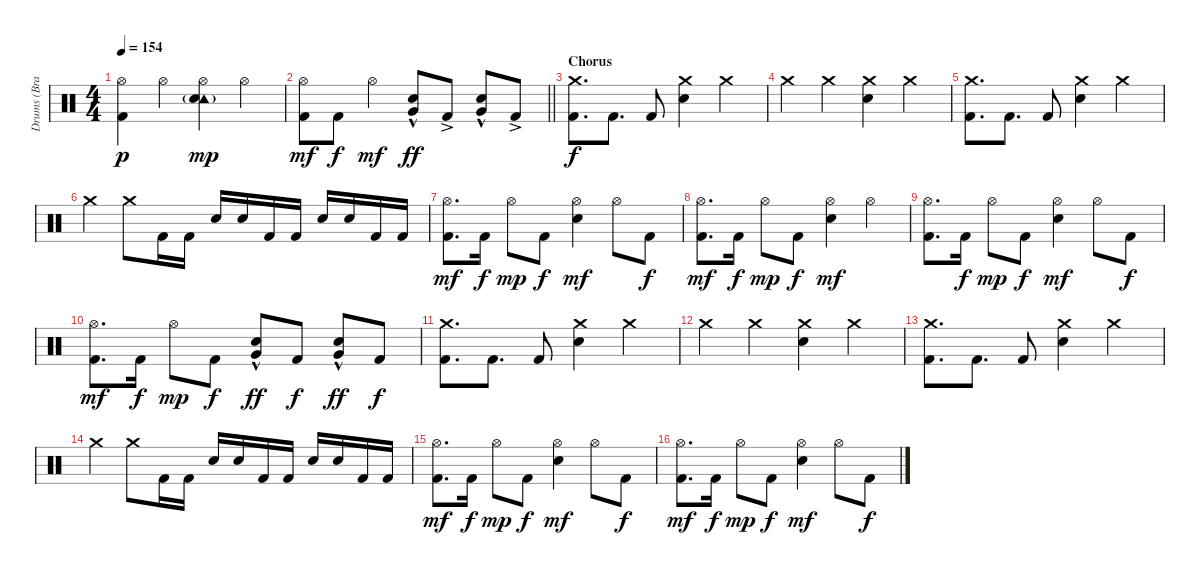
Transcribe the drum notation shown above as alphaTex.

\track ("Drums (Brandon Saller)" "Drums (Bra") {instrument percussion}
\staff {score}
\articulation defaults
\ts (4 4)
\tempo 154
\clef neutral
\ks c
("Hi-Hat (open)" "Kick (hit) 2").4{dy p} "Hi-Hat (open)".4 ("Hi-Hat (open)" "Tambourine (hit)"{g} "Electric Snare (hit)").4{dy mp} "Hi-Hat (open)".4 |
\barLineRight lightlight
("Hi-Hat (open)" "Kick (hit) 2").8{dy mf} "Kick (hit) 2".8{dy f} "Hi-Hat (open)".4{dy mf} ("Electric Snare (hit)"{hac} "Very Low Tom (hit)"{hac}).8{dy ff} "Kick (hit) 2"{ac}.8 ("Electric Snare (hit)"{hac} "Very Low Tom (hit)"{hac}).8 "Kick (hit) 2"{ac}.8 |
\section ("" "Chorus")
("Crash medium (hit)" "Kick (hit) 2").8{d dy f} "Kick (hit) 2".8{d} "Kick (hit) 2".8 ("Crash medium (hit)" "Electric Snare (hit)").4 "Crash medium (hit)".4 |
"Crash medium (hit)".4 "Crash medium (hit)".4 ("Crash medium (hit)" "Electric Snare (hit)").4 "Crash medium (hit)".4 |
("Crash medium (hit)" "Kick (hit) 2").8{d} "Kick (hit) 2".8{d} "Kick (hit) 2".8 ("Crash medium (hit)" "Electric Snare (hit)").4 "Crash medium (hit)".4 |
"Crash medium (hit)".4 "Crash medium (hit)".8 "Kick (hit) 2".16 "Kick (hit) 2".16 "Electric Snare (hit)".16 "Electric Snare (hit)".16 "Kick (hit) 2".16 "Kick (hit) 2".16 "Electric Snare (hit)".16 "Electric Snare (hit)".16 "Kick (hit) 2".16 "Kick (hit) 2".16 |
("Hi-Hat (open)" "Kick (hit) 2").8{d dy mf} "Kick (hit) 2".16{dy f} "Hi-Hat (open)".8{dy mp} "Kick (hit) 2".8{dy f} ("Hi-Hat (open)" "Electric Snare (hit)").4{dy mf} "Hi-Hat (open)".8 "Kick (hit) 2".8{dy f} |
("Hi-Hat (open)" "Kick (hit) 2").8{d dy mf} "Kick (hit) 2".16{dy f} "Hi-Hat (open)".8{dy mp} "Kick (hit) 2".8{dy f} ("Hi-Hat (open)" "Electric Snare (hit)").4{dy mf} "Hi-Hat (open)".4 |
("Hi-Hat (open)" "Kick (hit) 2").8{d} "Kick (hit) 2".16{dy f} "Hi-Hat (open)".8{dy mp} "Kick (hit) 2".8{dy f} ("Hi-Hat (open)" "Electric Snare (hit)").4{dy mf} "Hi-Hat (open)".8 "Kick (hit) 2".8{dy f} |
("Hi-Hat (open)" "Kick (hit) 2").8{d dy mf} "Kick (hit) 2".16{dy f} "Hi-Hat (open)".8{dy mp} "Kick (hit) 2".8{dy f} ("Electric Snare (hit)"{hac} "Very Low Tom (hit)"{hac}).8{dy ff} "Kick (hit) 2".8{dy f} ("Electric Snare (hit)"{hac} "Very Low Tom (hit)"{hac}).8{dy ff} "Kick (hit) 2".8{dy f} |
("Crash medium (hit)" "Kick (hit) 2").8{d} "Kick (hit) 2".8{d} "Kick (hit) 2".8 ("Crash medium (hit)" "Electric Snare (hit)").4 "Crash medium (hit)".4 |
"Crash medium (hit)".4 "Crash medium (hit)".4 ("Crash medium (hit)" "Electric Snare (hit)").4 "Crash medium (hit)".4 |
("Crash medium (hit)" "Kick (hit) 2").8{d} "Kick (hit) 2".8{d} "Kick (hit) 2".8 ("Crash medium (hit)" "Electric Snare (hit)").4 "Crash medium (hit)".4 |
"Crash medium (hit)".4 "Crash medium (hit)".8 "Kick (hit) 2".16 "Kick (hit) 2".16 "Electric Snare (hit)".16 "Electric Snare (hit)".16 "Kick (hit) 2".16 "Kick (hit) 2".16 "Electric Snare (hit)".16 "Electric Snare (hit)".16 "Kick (hit) 2".16 "Kick (hit) 2".16 |
("Hi-Hat (open)" "Kick (hit) 2").8{d dy mf} "Kick (hit) 2".16{dy f} "Hi-Hat (open)".8{dy mp} "Kick (hit) 2".8{dy f} ("Hi-Hat (open)" "Electric Snare (hit)").4{dy mf} "Hi-Hat (open)".8 "Kick (hit) 2".8{dy f} |
("Hi-Hat (open)" "Kick (hit) 2").8{d dy mf} "Kick (hit) 2".16{dy f} "Hi-Hat (open)".8{dy mp} "Kick (hit) 2".8{dy f} ("Hi-Hat (open)" "Electric Snare (hit)").4{dy mf} "Hi-Hat (open)".8 "Kick (hit) 2".8{dy f}
